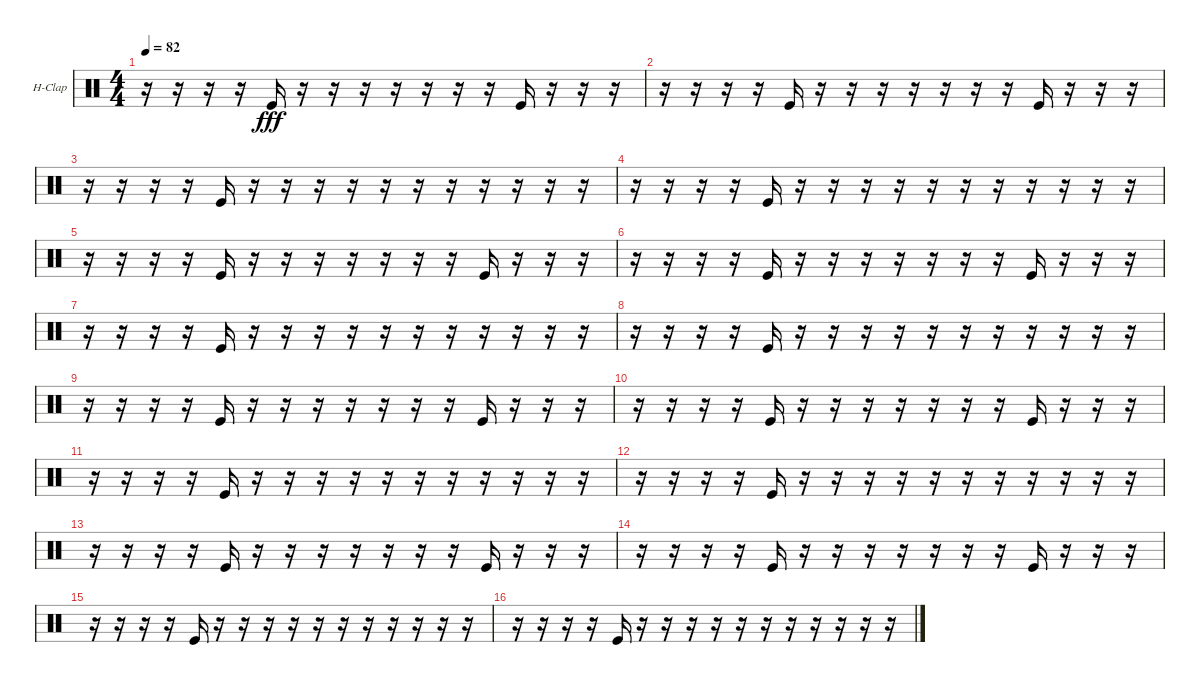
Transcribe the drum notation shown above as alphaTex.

\bracketExtendMode groupsimilarinstruments
\firstSystemTrackNameOrientation horizontal
\otherSystemsTrackNameOrientation horizontal
\track ("Hand Clap" "H-Clap") {instrument percussion}
\staff {score}
\articulation defaults
\ts (4 4)
\tempo 82
\clef neutral
\ks c
r.16{dy fff} r.16 r.16 r.16 "Kick (hit)".16 r.16 r.16 r.16 r.16 r.16 r.16 r.16 "Kick (hit)".16 r.16 r.16 r.16 |
r.16 r.16 r.16 r.16 "Kick (hit)".16 r.16 r.16 r.16 r.16 r.16 r.16 r.16 "Kick (hit)".16 r.16 r.16 r.16 |
r.16 r.16 r.16 r.16 "Kick (hit)".16 r.16 r.16 r.16 r.16 r.16 r.16 r.16 r.16 r.16 r.16 r.16 |
r.16 r.16 r.16 r.16 "Kick (hit)".16 r.16 r.16 r.16 r.16 r.16 r.16 r.16 r.16 r.16 r.16 r.16 |
r.16 r.16 r.16 r.16 "Kick (hit)".16 r.16 r.16 r.16 r.16 r.16 r.16 r.16 "Kick (hit)".16 r.16 r.16 r.16 |
r.16 r.16 r.16 r.16 "Kick (hit)".16 r.16 r.16 r.16 r.16 r.16 r.16 r.16 "Kick (hit)".16 r.16 r.16 r.16 |
r.16 r.16 r.16 r.16 "Kick (hit)".16 r.16 r.16 r.16 r.16 r.16 r.16 r.16 r.16 r.16 r.16 r.16 |
r.16 r.16 r.16 r.16 "Kick (hit)".16 r.16 r.16 r.16 r.16 r.16 r.16 r.16 r.16 r.16 r.16 r.16 |
r.16 r.16 r.16 r.16 "Kick (hit)".16 r.16 r.16 r.16 r.16 r.16 r.16 r.16 "Kick (hit)".16 r.16 r.16 r.16 |
r.16 r.16 r.16 r.16 "Kick (hit)".16 r.16 r.16 r.16 r.16 r.16 r.16 r.16 "Kick (hit)".16 r.16 r.16 r.16 |
r.16 r.16 r.16 r.16 "Kick (hit)".16 r.16 r.16 r.16 r.16 r.16 r.16 r.16 r.16 r.16 r.16 r.16 |
r.16 r.16 r.16 r.16 "Kick (hit)".16 r.16 r.16 r.16 r.16 r.16 r.16 r.16 r.16 r.16 r.16 r.16 |
r.16 r.16 r.16 r.16 "Kick (hit)".16 r.16 r.16 r.16 r.16 r.16 r.16 r.16 "Kick (hit)".16 r.16 r.16 r.16 |
r.16 r.16 r.16 r.16 "Kick (hit)".16 r.16 r.16 r.16 r.16 r.16 r.16 r.16 "Kick (hit)".16 r.16 r.16 r.16 |
r.16 r.16 r.16 r.16 "Kick (hit)".16 r.16 r.16 r.16 r.16 r.16 r.16 r.16 r.16 r.16 r.16 r.16 |
r.16 r.16 r.16 r.16 "Kick (hit)".16 r.16 r.16 r.16 r.16 r.16 r.16 r.16 r.16 r.16 r.16 r.16
